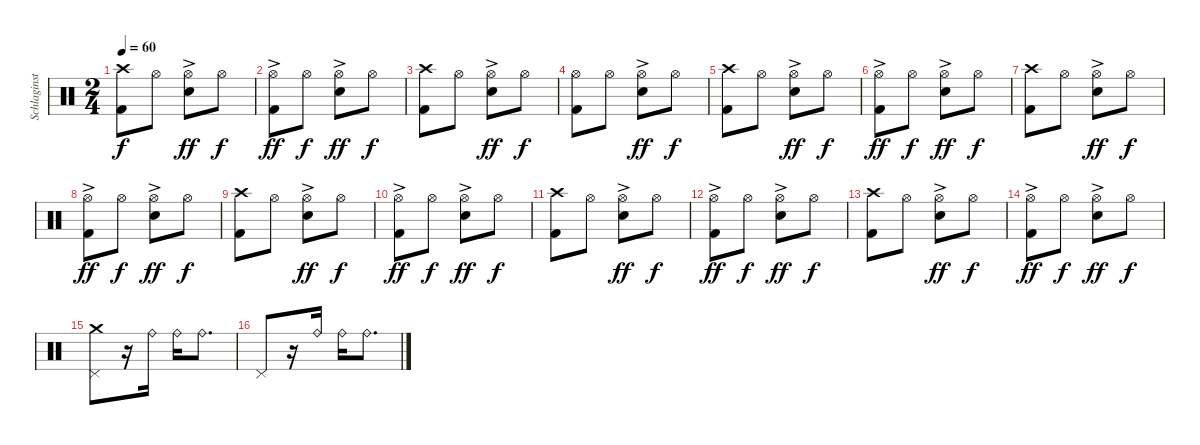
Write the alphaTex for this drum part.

\track ("Schlaginstrumente - Auswahl" "Schlaginst") {instrument percussion}
\staff {score}
\articulation defaults
\ts (2 4)
\tempo 60
\clef neutral
\ks c
("Crash high (hit)" "Kick (hit) 2").8{dy f} "Hi-Hat (open)".8 ("Hi-Hat (open)"{ac} "Snare (hit) 2").8{dy ff} "Hi-Hat (open)".8{dy f} |
("Hi-Hat (open)"{ac} "Kick (hit) 2").8{dy ff} "Hi-Hat (open)".8{dy f} ("Hi-Hat (open)"{ac} "Snare (hit) 2").8{dy ff} "Hi-Hat (open)".8{dy f} |
("Crash high (hit)" "Kick (hit) 2").8 "Hi-Hat (open)".8 ("Hi-Hat (open)"{ac} "Snare (hit) 2").8{dy ff} "Hi-Hat (open)".8{dy f} |
("Hi-Hat (open)" "Kick (hit) 2").8 "Hi-Hat (open)".8 ("Hi-Hat (open)"{ac} "Snare (hit) 2").8{dy ff} "Hi-Hat (open)".8{dy f} |
("Crash high (hit)" "Kick (hit) 2").8 "Hi-Hat (open)".8 ("Hi-Hat (open)"{ac} "Snare (hit) 2").8{dy ff} "Hi-Hat (open)".8{dy f} |
("Hi-Hat (open)"{ac} "Kick (hit) 2").8{dy ff} "Hi-Hat (open)".8{dy f} ("Hi-Hat (open)"{ac} "Snare (hit) 2").8{dy ff} "Hi-Hat (open)".8{dy f} |
("Crash high (hit)" "Kick (hit) 2").8 "Hi-Hat (open)".8 ("Hi-Hat (open)"{ac} "Snare (hit) 2").8{dy ff} "Hi-Hat (open)".8{dy f} |
("Hi-Hat (open)"{ac} "Kick (hit) 2").8{dy ff} "Hi-Hat (open)".8{dy f} ("Hi-Hat (open)"{ac} "Snare (hit) 2").8{dy ff} "Hi-Hat (open)".8{dy f} |
("Crash high (hit)" "Kick (hit) 2").8 "Hi-Hat (open)".8 ("Hi-Hat (open)"{ac} "Snare (hit) 2").8{dy ff} "Hi-Hat (open)".8{dy f} |
("Hi-Hat (open)"{ac} "Kick (hit) 2").8{dy ff} "Hi-Hat (open)".8{dy f} ("Hi-Hat (open)"{ac} "Snare (hit) 2").8{dy ff} "Hi-Hat (open)".8{dy f} |
("Crash high (hit)" "Kick (hit) 2").8 "Hi-Hat (open)".8 ("Hi-Hat (open)"{ac} "Snare (hit) 2").8{dy ff} "Hi-Hat (open)".8{dy f} |
("Hi-Hat (open)"{ac} "Kick (hit) 2").8{dy ff} "Hi-Hat (open)".8{dy f} ("Hi-Hat (open)"{ac} "Snare (hit) 2").8{dy ff} "Hi-Hat (open)".8{dy f} |
("Crash high (hit)" "Kick (hit) 2").8 "Hi-Hat (open)".8 ("Hi-Hat (open)"{ac} "Snare (hit) 2").8{dy ff} "Hi-Hat (open)".8{dy f} |
("Hi-Hat (open)"{ac} "Kick (hit) 2").8{dy ff} "Hi-Hat (open)".8{dy f} ("Hi-Hat (open)"{ac} "Snare (hit) 2").8{dy ff} "Hi-Hat (open)".8{dy f} |
("Pedal Hi-Hat (hit)" "Crash medium (hit)").8 r.16 "Ride (bell)".16 "Ride (bell)".16 "Ride (bell)".8{d} |
"Pedal Hi-Hat (hit)".8 r.16 "Ride (bell)".16 "Ride (bell)".16 "Ride (bell)".8{d}
